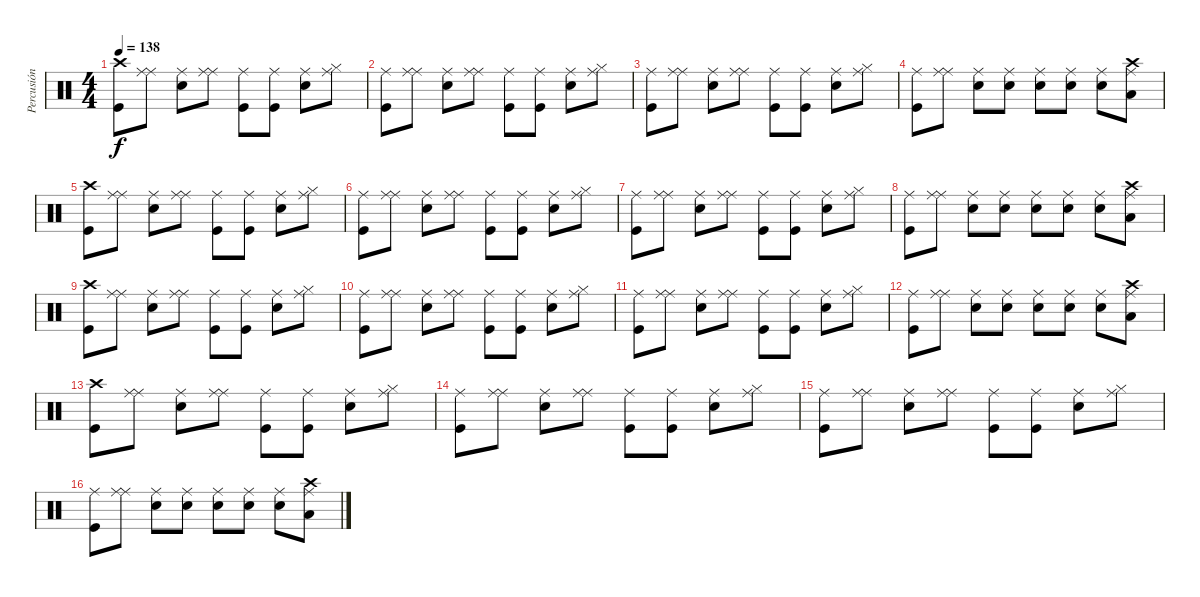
\track ("Percusión" "Percusión") {instrument percussion}
\staff {score}
\articulation defaults
\ts (4 4)
\tempo 138
\clef neutral
\ks c
("Crash high (hit)" "Kick (hit)").8{dy f} ("Ride (middle)" "Ride (middle)").8 ("Ride (middle)" "Snare (hit) 2").8 ("Ride (middle)" "Ride (middle)").8 ("Ride (middle)" "Kick (hit)").8 ("Ride (middle)" "Kick (hit)").8 ("Ride (middle)" "Snare (hit) 2").8 ("Ride (middle)" "Hi-Hat (closed)").8 |
("Ride (middle)" "Kick (hit)").8 ("Ride (middle)" "Ride (middle)").8 ("Ride (middle)" "Snare (hit) 2").8 ("Ride (middle)" "Ride (middle)").8 ("Ride (middle)" "Kick (hit)").8 ("Ride (middle)" "Kick (hit)").8 ("Ride (middle)" "Snare (hit) 2").8 ("Ride (middle)" "Hi-Hat (closed)").8 |
("Ride (middle)" "Kick (hit)").8 ("Ride (middle)" "Ride (middle)").8 ("Ride (middle)" "Snare (hit) 2").8 ("Ride (middle)" "Ride (middle)").8 ("Ride (middle)" "Kick (hit)").8 ("Ride (middle)" "Kick (hit)").8 ("Ride (middle)" "Snare (hit) 2").8 ("Ride (middle)" "Hi-Hat (closed)").8 |
("Ride (middle)" "Kick (hit)").8 ("Ride (middle)" "Ride (middle)").8 ("Ride (middle)" "Snare (hit) 2").8 ("Ride (middle)" "Snare (hit) 2").8 ("Ride (middle)" "Snare (hit) 2").8 ("Ride (middle)" "Snare (hit) 2").8 ("Ride (middle)" "Snare (hit) 2").8 ("Ride (middle)" "Low Tom (hit)" "Crash high (hit)").8 |
("Crash high (hit)" "Kick (hit)").8 ("Ride (middle)" "Ride (middle)").8 ("Ride (middle)" "Snare (hit) 2").8 ("Ride (middle)" "Ride (middle)").8 ("Ride (middle)" "Kick (hit)").8 ("Ride (middle)" "Kick (hit)").8 ("Ride (middle)" "Snare (hit) 2").8 ("Ride (middle)" "Hi-Hat (closed)").8 |
("Ride (middle)" "Kick (hit)").8 ("Ride (middle)" "Ride (middle)").8 ("Ride (middle)" "Snare (hit) 2").8 ("Ride (middle)" "Ride (middle)").8 ("Ride (middle)" "Kick (hit)").8 ("Ride (middle)" "Kick (hit)").8 ("Ride (middle)" "Snare (hit) 2").8 ("Ride (middle)" "Hi-Hat (closed)").8 |
("Ride (middle)" "Kick (hit)").8 ("Ride (middle)" "Ride (middle)").8 ("Ride (middle)" "Snare (hit) 2").8 ("Ride (middle)" "Ride (middle)").8 ("Ride (middle)" "Kick (hit)").8 ("Ride (middle)" "Kick (hit)").8 ("Ride (middle)" "Snare (hit) 2").8 ("Ride (middle)" "Hi-Hat (closed)").8 |
("Ride (middle)" "Kick (hit)").8 ("Ride (middle)" "Ride (middle)").8 ("Ride (middle)" "Snare (hit) 2").8 ("Ride (middle)" "Snare (hit) 2").8 ("Ride (middle)" "Snare (hit) 2").8 ("Ride (middle)" "Snare (hit) 2").8 ("Ride (middle)" "Snare (hit) 2").8 ("Ride (middle)" "Low Tom (hit)" "Crash high (hit)").8 |
("Crash high (hit)" "Kick (hit)").8 ("Ride (middle)" "Ride (middle)").8 ("Ride (middle)" "Snare (hit) 2").8 ("Ride (middle)" "Ride (middle)").8 ("Ride (middle)" "Kick (hit)").8 ("Ride (middle)" "Kick (hit)").8 ("Ride (middle)" "Snare (hit) 2").8 ("Ride (middle)" "Hi-Hat (closed)").8 |
("Ride (middle)" "Kick (hit)").8 ("Ride (middle)" "Ride (middle)").8 ("Ride (middle)" "Snare (hit) 2").8 ("Ride (middle)" "Ride (middle)").8 ("Ride (middle)" "Kick (hit)").8 ("Ride (middle)" "Kick (hit)").8 ("Ride (middle)" "Snare (hit) 2").8 ("Ride (middle)" "Hi-Hat (closed)").8 |
("Ride (middle)" "Kick (hit)").8 ("Ride (middle)" "Ride (middle)").8 ("Ride (middle)" "Snare (hit) 2").8 ("Ride (middle)" "Ride (middle)").8 ("Ride (middle)" "Kick (hit)").8 ("Ride (middle)" "Kick (hit)").8 ("Ride (middle)" "Snare (hit) 2").8 ("Ride (middle)" "Hi-Hat (closed)").8 |
("Ride (middle)" "Kick (hit)").8 ("Ride (middle)" "Ride (middle)").8 ("Ride (middle)" "Snare (hit) 2").8 ("Ride (middle)" "Snare (hit) 2").8 ("Ride (middle)" "Snare (hit) 2").8 ("Ride (middle)" "Snare (hit) 2").8 ("Ride (middle)" "Snare (hit) 2").8 ("Ride (middle)" "Low Tom (hit)" "Crash high (hit)").8 |
("Crash high (hit)" "Kick (hit)").8 ("Ride (middle)" "Ride (middle)").8 ("Ride (middle)" "Snare (hit) 2").8 ("Ride (middle)" "Ride (middle)").8 ("Ride (middle)" "Kick (hit)").8 ("Ride (middle)" "Kick (hit)").8 ("Ride (middle)" "Snare (hit) 2").8 ("Ride (middle)" "Hi-Hat (closed)").8 |
("Ride (middle)" "Kick (hit)").8 ("Ride (middle)" "Ride (middle)").8 ("Ride (middle)" "Snare (hit) 2").8 ("Ride (middle)" "Ride (middle)").8 ("Ride (middle)" "Kick (hit)").8 ("Ride (middle)" "Kick (hit)").8 ("Ride (middle)" "Snare (hit) 2").8 ("Ride (middle)" "Hi-Hat (closed)").8 |
("Ride (middle)" "Kick (hit)").8 ("Ride (middle)" "Ride (middle)").8 ("Ride (middle)" "Snare (hit) 2").8 ("Ride (middle)" "Ride (middle)").8 ("Ride (middle)" "Kick (hit)").8 ("Ride (middle)" "Kick (hit)").8 ("Ride (middle)" "Snare (hit) 2").8 ("Ride (middle)" "Hi-Hat (closed)").8 |
("Ride (middle)" "Kick (hit)").8 ("Ride (middle)" "Ride (middle)").8 ("Ride (middle)" "Snare (hit) 2").8 ("Ride (middle)" "Snare (hit) 2").8 ("Ride (middle)" "Snare (hit) 2").8 ("Ride (middle)" "Snare (hit) 2").8 ("Ride (middle)" "Snare (hit) 2").8 ("Ride (middle)" "Low Tom (hit)" "Crash high (hit)").8
